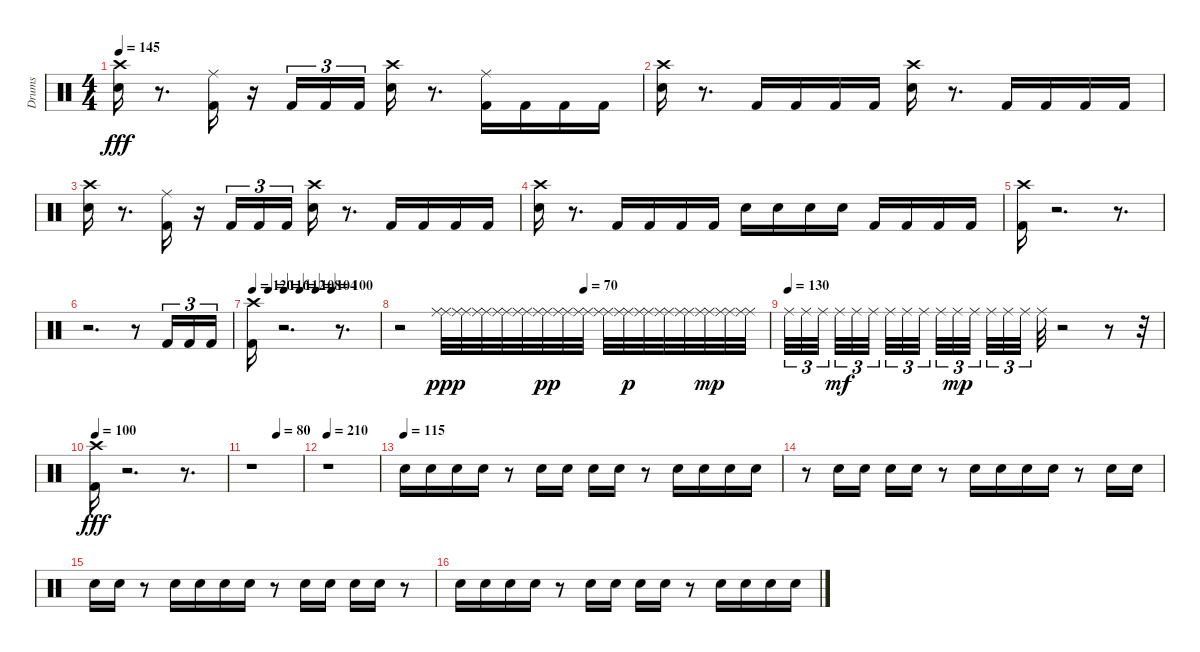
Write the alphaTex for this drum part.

\track ("Drums" "Drums") {instrument percussion}
\staff {score}
\articulation defaults
\ts (4 4)
\tempo 145
\clef neutral
\ks c
("Crash high (hit)" "Electric Snare (hit)").16{dy fff} r.8{d} ("Ride (middle)" "Kick (hit) 2").16 r.16 "Kick (hit) 2".16{tu (3 2)} "Kick (hit) 2".16{tu (3 2)} "Kick (hit) 2".16{tu (3 2)} ("Crash high (hit)" "Electric Snare (hit)").16 r.8{d} ("Ride (middle)" "Kick (hit) 2").16 "Kick (hit) 2".16 "Kick (hit) 2".16 "Kick (hit) 2".16 |
("Crash high (hit)" "Electric Snare (hit)").16 r.8{d} "Kick (hit) 2".16 "Kick (hit) 2".16 "Kick (hit) 2".16 "Kick (hit) 2".16 ("Crash high (hit)" "Electric Snare (hit)").16 r.8{d} "Kick (hit) 2".16 "Kick (hit) 2".16 "Kick (hit) 2".16 "Kick (hit) 2".16 |
("Crash high (hit)" "Electric Snare (hit)").16 r.8{d} ("Kick (hit) 2" "Ride (middle)").16 r.16 "Kick (hit) 2".16{tu (3 2)} "Kick (hit) 2".16{tu (3 2)} "Kick (hit) 2".16{tu (3 2)} ("Electric Snare (hit)" "Crash high (hit)").16 r.8{d} "Kick (hit) 2".16 "Kick (hit) 2".16 "Kick (hit) 2".16 "Kick (hit) 2".16 |
("Electric Snare (hit)" "Crash high (hit)").16 r.8{d} "Kick (hit) 2".16 "Kick (hit) 2".16 "Kick (hit) 2".16 "Kick (hit) 2".16 "Electric Snare (hit)".16 "Electric Snare (hit)".16 "Electric Snare (hit)".16 "Electric Snare (hit)".16 "Kick (hit) 2".16 "Kick (hit) 2".16 "Kick (hit) 2".16 "Kick (hit) 2".16 |
("Crash high (hit)" "Kick (hit) 2").16 r.2{d} r.8{d} |
r.2{d} r.8 "Kick (hit) 2".16{tu (3 2)} "Kick (hit) 2".16{tu (3 2)} "Kick (hit) 2".16{tu (3 2)} |
\tempo 120
\tempo (116 0.125)
\tempo (112 0.25)
\tempo (108 0.375)
\tempo (104 0.5)
\tempo (100 0.625)
("Crash high (hit)" "Kick (hit) 2").16 r.2{d} r.8{d} |
\tempo (70 0.5)
r.2 ("Ride (middle)" "Ride (middle)").32{dy ppp} ("Ride (middle)" "Ride (middle)").32 ("Ride (middle)" "Ride (middle)").32 ("Ride (middle)" "Ride (middle)").32 ("Ride (middle)" "Ride (middle)").32 ("Ride (middle)" "Ride (middle)").32{dy pp} ("Ride (middle)" "Ride (middle)").32 ("Ride (middle)" "Ride (middle)").32 ("Ride (middle)" "Ride (middle)").32 ("Ride (middle)" "Ride (middle)").32{dy p} ("Ride (middle)" "Ride (middle)").32 ("Ride (middle)" "Ride (middle)").32 ("Ride (middle)" "Ride (middle)").32 ("Ride (middle)" "Ride (middle)").32{dy mp} ("Ride (middle)" "Ride (middle)").32 ("Ride (middle)" "Ride (middle)").32 |
\tempo (130)
"Ride (middle)".32{tu (3 2)} "Ride (middle)".32{tu (3 2)} "Ride (middle)".32{tu (3 2) beam splitsecondary} "Ride (middle)".32{tu (3 2) dy mf} "Ride (middle)".32{tu (3 2)} "Ride (middle)".32{tu (3 2) beam splitsecondary} "Ride (middle)".32{tu (3 2)} "Ride (middle)".32{tu (3 2)} "Ride (middle)".32{tu (3 2) beam splitsecondary} "Ride (middle)".32{tu (3 2)} "Ride (middle)".32{tu (3 2) dy mp} "Ride (middle)".32{tu (3 2)} "Ride (middle)".32{tu (3 2)} "Ride (middle)".32{tu (3 2)} "Ride (middle)".32{tu (3 2) beam splitsecondary} "Ride (middle)".32 r.2 r.8 r.32 |
\tempo 100
("Crash high (hit)" "Kick (hit) 2").16{dy fff} r.2{d} r.8{d} |
\tempo (80 0.5)
r.1 |
\tempo 210
r.1 |
\tempo (115)
"Electric Snare (hit)".16{volume 4} "Electric Snare (hit)".16{volume 4} "Electric Snare (hit)".16{volume 4} "Electric Snare (hit)".16{volume 4} r.8 "Electric Snare (hit)".16{volume 5} "Electric Snare (hit)".16{volume 5} "Electric Snare (hit)".16{volume 5} "Electric Snare (hit)".16{volume 5} r.8 "Electric Snare (hit)".16{volume 6} "Electric Snare (hit)".16{volume 6} "Electric Snare (hit)".16{volume 6} "Electric Snare (hit)".16{volume 6} |
r.8 "Electric Snare (hit)".16{volume 7} "Electric Snare (hit)".16{volume 7} "Electric Snare (hit)".16{volume 7} "Electric Snare (hit)".16{volume 7} r.8 "Electric Snare (hit)".16{volume 8} "Electric Snare (hit)".16{volume 8} "Electric Snare (hit)".16{volume 8} "Electric Snare (hit)".16{volume 8} r.8 "Electric Snare (hit)".16{volume 9} "Electric Snare (hit)".16{volume 9} |
"Electric Snare (hit)".16{volume 9} "Electric Snare (hit)".16{volume 9} r.8 "Electric Snare (hit)".16{volume 10} "Electric Snare (hit)".16{volume 10} "Electric Snare (hit)".16{volume 10} "Electric Snare (hit)".16{volume 10} r.8 "Electric Snare (hit)".16{volume 11} "Electric Snare (hit)".16{volume 11} "Electric Snare (hit)".16{volume 11} "Electric Snare (hit)".16{volume 11} r.8 |
"Electric Snare (hit)".16{volume 12} "Electric Snare (hit)".16{volume 12} "Electric Snare (hit)".16{volume 12} "Electric Snare (hit)".16{volume 12} r.8 "Electric Snare (hit)".16{volume 13} "Electric Snare (hit)".16{volume 13} "Electric Snare (hit)".16{volume 13} "Electric Snare (hit)".16{volume 13} r.8 "Electric Snare (hit)".16{volume 14} "Electric Snare (hit)".16{volume 14} "Electric Snare (hit)".16{volume 14} "Electric Snare (hit)".16{volume 14}
